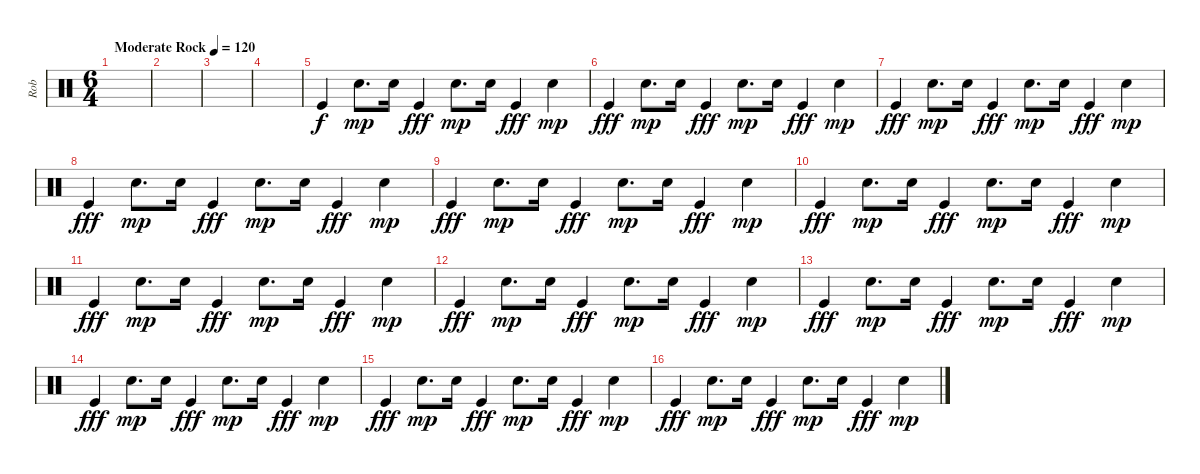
\track ("Rob" "Rob") {instrument percussion}
\staff {score}
\articulation defaults
\ts (6 4)
\tempo (120 "Moderate Rock")
\clef neutral
\ks c
|
|
|
|
"Kick (hit)".4 "Snare (hit) 2".8{d dy mp} "Snare (hit) 2".16 "Kick (hit)".4{dy fff} "Snare (hit) 2".8{d dy mp} "Snare (hit) 2".16 "Kick (hit)".4{dy fff} "Snare (hit) 2".4{dy mp} |
"Kick (hit)".4{dy fff} "Snare (hit) 2".8{d dy mp} "Snare (hit) 2".16 "Kick (hit)".4{dy fff} "Snare (hit) 2".8{d dy mp} "Snare (hit) 2".16 "Kick (hit)".4{dy fff} "Snare (hit) 2".4{dy mp} |
"Kick (hit)".4{dy fff} "Snare (hit) 2".8{d dy mp} "Snare (hit) 2".16 "Kick (hit)".4{dy fff} "Snare (hit) 2".8{d dy mp} "Snare (hit) 2".16 "Kick (hit)".4{dy fff} "Snare (hit) 2".4{dy mp} |
"Kick (hit)".4{dy fff} "Snare (hit) 2".8{d dy mp} "Snare (hit) 2".16 "Kick (hit)".4{dy fff} "Snare (hit) 2".8{d dy mp} "Snare (hit) 2".16 "Kick (hit)".4{dy fff} "Snare (hit) 2".4{dy mp} |
"Kick (hit)".4{dy fff} "Snare (hit) 2".8{d dy mp} "Snare (hit) 2".16 "Kick (hit)".4{dy fff} "Snare (hit) 2".8{d dy mp} "Snare (hit) 2".16 "Kick (hit)".4{dy fff} "Snare (hit) 2".4{dy mp} |
"Kick (hit)".4{dy fff} "Snare (hit) 2".8{d dy mp} "Snare (hit) 2".16 "Kick (hit)".4{dy fff} "Snare (hit) 2".8{d dy mp} "Snare (hit) 2".16 "Kick (hit)".4{dy fff} "Snare (hit) 2".4{dy mp} |
"Kick (hit)".4{dy fff} "Snare (hit) 2".8{d dy mp} "Snare (hit) 2".16 "Kick (hit)".4{dy fff} "Snare (hit) 2".8{d dy mp} "Snare (hit) 2".16 "Kick (hit)".4{dy fff} "Snare (hit) 2".4{dy mp} |
"Kick (hit)".4{dy fff} "Snare (hit) 2".8{d dy mp} "Snare (hit) 2".16 "Kick (hit)".4{dy fff} "Snare (hit) 2".8{d dy mp} "Snare (hit) 2".16 "Kick (hit)".4{dy fff} "Snare (hit) 2".4{dy mp} |
"Kick (hit)".4{dy fff} "Snare (hit) 2".8{d dy mp} "Snare (hit) 2".16 "Kick (hit)".4{dy fff} "Snare (hit) 2".8{d dy mp} "Snare (hit) 2".16 "Kick (hit)".4{dy fff} "Snare (hit) 2".4{dy mp} |
"Kick (hit)".4{dy fff} "Snare (hit) 2".8{d dy mp} "Snare (hit) 2".16 "Kick (hit)".4{dy fff} "Snare (hit) 2".8{d dy mp} "Snare (hit) 2".16 "Kick (hit)".4{dy fff} "Snare (hit) 2".4{dy mp} |
"Kick (hit)".4{dy fff} "Snare (hit) 2".8{d dy mp} "Snare (hit) 2".16 "Kick (hit)".4{dy fff} "Snare (hit) 2".8{d dy mp} "Snare (hit) 2".16 "Kick (hit)".4{dy fff} "Snare (hit) 2".4{dy mp} |
"Kick (hit)".4{dy fff} "Snare (hit) 2".8{d dy mp} "Snare (hit) 2".16 "Kick (hit)".4{dy fff} "Snare (hit) 2".8{d dy mp} "Snare (hit) 2".16 "Kick (hit)".4{dy fff} "Snare (hit) 2".4{dy mp}
